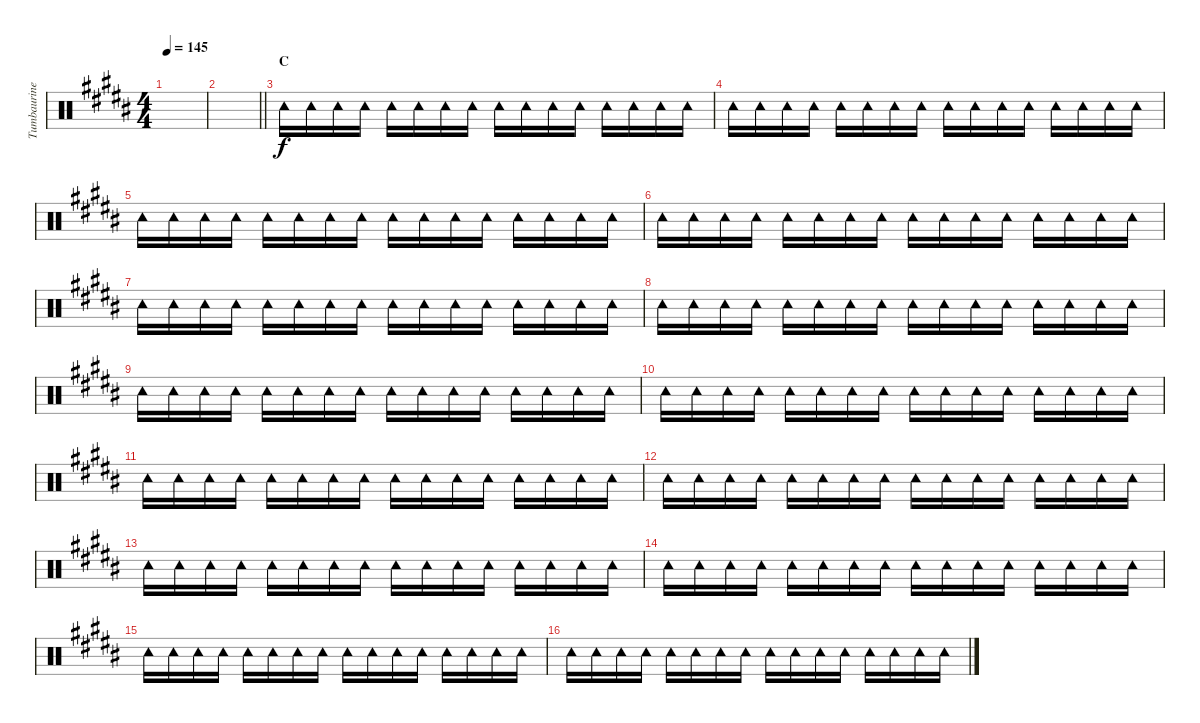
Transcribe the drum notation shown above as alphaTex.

\track ("Tumbaurine" "Tumbaurine") {instrument percussion}
\staff {score}
\articulation defaults
\ts (4 4)
\tempo 145
\clef neutral
\ks b
|
\barLineRight lightlight
|
\section ("" "C")
"Tambourine (hit)".16 "Tambourine (hit)".16 "Tambourine (hit)".16 "Tambourine (hit)".16 "Tambourine (hit)".16 "Tambourine (hit)".16 "Tambourine (hit)".16 "Tambourine (hit)".16 "Tambourine (hit)".16 "Tambourine (hit)".16 "Tambourine (hit)".16 "Tambourine (hit)".16 "Tambourine (hit)".16 "Tambourine (hit)".16 "Tambourine (hit)".16 "Tambourine (hit)".16 |
"Tambourine (hit)".16 "Tambourine (hit)".16 "Tambourine (hit)".16 "Tambourine (hit)".16 "Tambourine (hit)".16 "Tambourine (hit)".16 "Tambourine (hit)".16 "Tambourine (hit)".16 "Tambourine (hit)".16 "Tambourine (hit)".16 "Tambourine (hit)".16 "Tambourine (hit)".16 "Tambourine (hit)".16 "Tambourine (hit)".16 "Tambourine (hit)".16 "Tambourine (hit)".16 |
"Tambourine (hit)".16 "Tambourine (hit)".16 "Tambourine (hit)".16 "Tambourine (hit)".16 "Tambourine (hit)".16 "Tambourine (hit)".16 "Tambourine (hit)".16 "Tambourine (hit)".16 "Tambourine (hit)".16 "Tambourine (hit)".16 "Tambourine (hit)".16 "Tambourine (hit)".16 "Tambourine (hit)".16 "Tambourine (hit)".16 "Tambourine (hit)".16 "Tambourine (hit)".16 |
"Tambourine (hit)".16 "Tambourine (hit)".16 "Tambourine (hit)".16 "Tambourine (hit)".16 "Tambourine (hit)".16 "Tambourine (hit)".16 "Tambourine (hit)".16 "Tambourine (hit)".16 "Tambourine (hit)".16 "Tambourine (hit)".16 "Tambourine (hit)".16 "Tambourine (hit)".16 "Tambourine (hit)".16 "Tambourine (hit)".16 "Tambourine (hit)".16 "Tambourine (hit)".16 |
"Tambourine (hit)".16 "Tambourine (hit)".16 "Tambourine (hit)".16 "Tambourine (hit)".16 "Tambourine (hit)".16 "Tambourine (hit)".16 "Tambourine (hit)".16 "Tambourine (hit)".16 "Tambourine (hit)".16 "Tambourine (hit)".16 "Tambourine (hit)".16 "Tambourine (hit)".16 "Tambourine (hit)".16 "Tambourine (hit)".16 "Tambourine (hit)".16 "Tambourine (hit)".16 |
"Tambourine (hit)".16 "Tambourine (hit)".16 "Tambourine (hit)".16 "Tambourine (hit)".16 "Tambourine (hit)".16 "Tambourine (hit)".16 "Tambourine (hit)".16 "Tambourine (hit)".16 "Tambourine (hit)".16 "Tambourine (hit)".16 "Tambourine (hit)".16 "Tambourine (hit)".16 "Tambourine (hit)".16 "Tambourine (hit)".16 "Tambourine (hit)".16 "Tambourine (hit)".16 |
"Tambourine (hit)".16 "Tambourine (hit)".16 "Tambourine (hit)".16 "Tambourine (hit)".16 "Tambourine (hit)".16 "Tambourine (hit)".16 "Tambourine (hit)".16 "Tambourine (hit)".16 "Tambourine (hit)".16 "Tambourine (hit)".16 "Tambourine (hit)".16 "Tambourine (hit)".16 "Tambourine (hit)".16 "Tambourine (hit)".16 "Tambourine (hit)".16 "Tambourine (hit)".16 |
"Tambourine (hit)".16 "Tambourine (hit)".16 "Tambourine (hit)".16 "Tambourine (hit)".16 "Tambourine (hit)".16 "Tambourine (hit)".16 "Tambourine (hit)".16 "Tambourine (hit)".16 "Tambourine (hit)".16 "Tambourine (hit)".16 "Tambourine (hit)".16 "Tambourine (hit)".16 "Tambourine (hit)".16 "Tambourine (hit)".16 "Tambourine (hit)".16 "Tambourine (hit)".16 |
"Tambourine (hit)".16 "Tambourine (hit)".16 "Tambourine (hit)".16 "Tambourine (hit)".16 "Tambourine (hit)".16 "Tambourine (hit)".16 "Tambourine (hit)".16 "Tambourine (hit)".16 "Tambourine (hit)".16 "Tambourine (hit)".16 "Tambourine (hit)".16 "Tambourine (hit)".16 "Tambourine (hit)".16 "Tambourine (hit)".16 "Tambourine (hit)".16 "Tambourine (hit)".16 |
"Tambourine (hit)".16 "Tambourine (hit)".16 "Tambourine (hit)".16 "Tambourine (hit)".16 "Tambourine (hit)".16 "Tambourine (hit)".16 "Tambourine (hit)".16 "Tambourine (hit)".16 "Tambourine (hit)".16 "Tambourine (hit)".16 "Tambourine (hit)".16 "Tambourine (hit)".16 "Tambourine (hit)".16 "Tambourine (hit)".16 "Tambourine (hit)".16 "Tambourine (hit)".16 |
"Tambourine (hit)".16 "Tambourine (hit)".16 "Tambourine (hit)".16 "Tambourine (hit)".16 "Tambourine (hit)".16 "Tambourine (hit)".16 "Tambourine (hit)".16 "Tambourine (hit)".16 "Tambourine (hit)".16 "Tambourine (hit)".16 "Tambourine (hit)".16 "Tambourine (hit)".16 "Tambourine (hit)".16 "Tambourine (hit)".16 "Tambourine (hit)".16 "Tambourine (hit)".16 |
"Tambourine (hit)".16 "Tambourine (hit)".16 "Tambourine (hit)".16 "Tambourine (hit)".16 "Tambourine (hit)".16 "Tambourine (hit)".16 "Tambourine (hit)".16 "Tambourine (hit)".16 "Tambourine (hit)".16 "Tambourine (hit)".16 "Tambourine (hit)".16 "Tambourine (hit)".16 "Tambourine (hit)".16 "Tambourine (hit)".16 "Tambourine (hit)".16 "Tambourine (hit)".16 |
"Tambourine (hit)".16 "Tambourine (hit)".16 "Tambourine (hit)".16 "Tambourine (hit)".16 "Tambourine (hit)".16 "Tambourine (hit)".16 "Tambourine (hit)".16 "Tambourine (hit)".16 "Tambourine (hit)".16 "Tambourine (hit)".16 "Tambourine (hit)".16 "Tambourine (hit)".16 "Tambourine (hit)".16 "Tambourine (hit)".16 "Tambourine (hit)".16 "Tambourine (hit)".16 |
"Tambourine (hit)".16 "Tambourine (hit)".16 "Tambourine (hit)".16 "Tambourine (hit)".16 "Tambourine (hit)".16 "Tambourine (hit)".16 "Tambourine (hit)".16 "Tambourine (hit)".16 "Tambourine (hit)".16 "Tambourine (hit)".16 "Tambourine (hit)".16 "Tambourine (hit)".16 "Tambourine (hit)".16 "Tambourine (hit)".16 "Tambourine (hit)".16 "Tambourine (hit)".16
